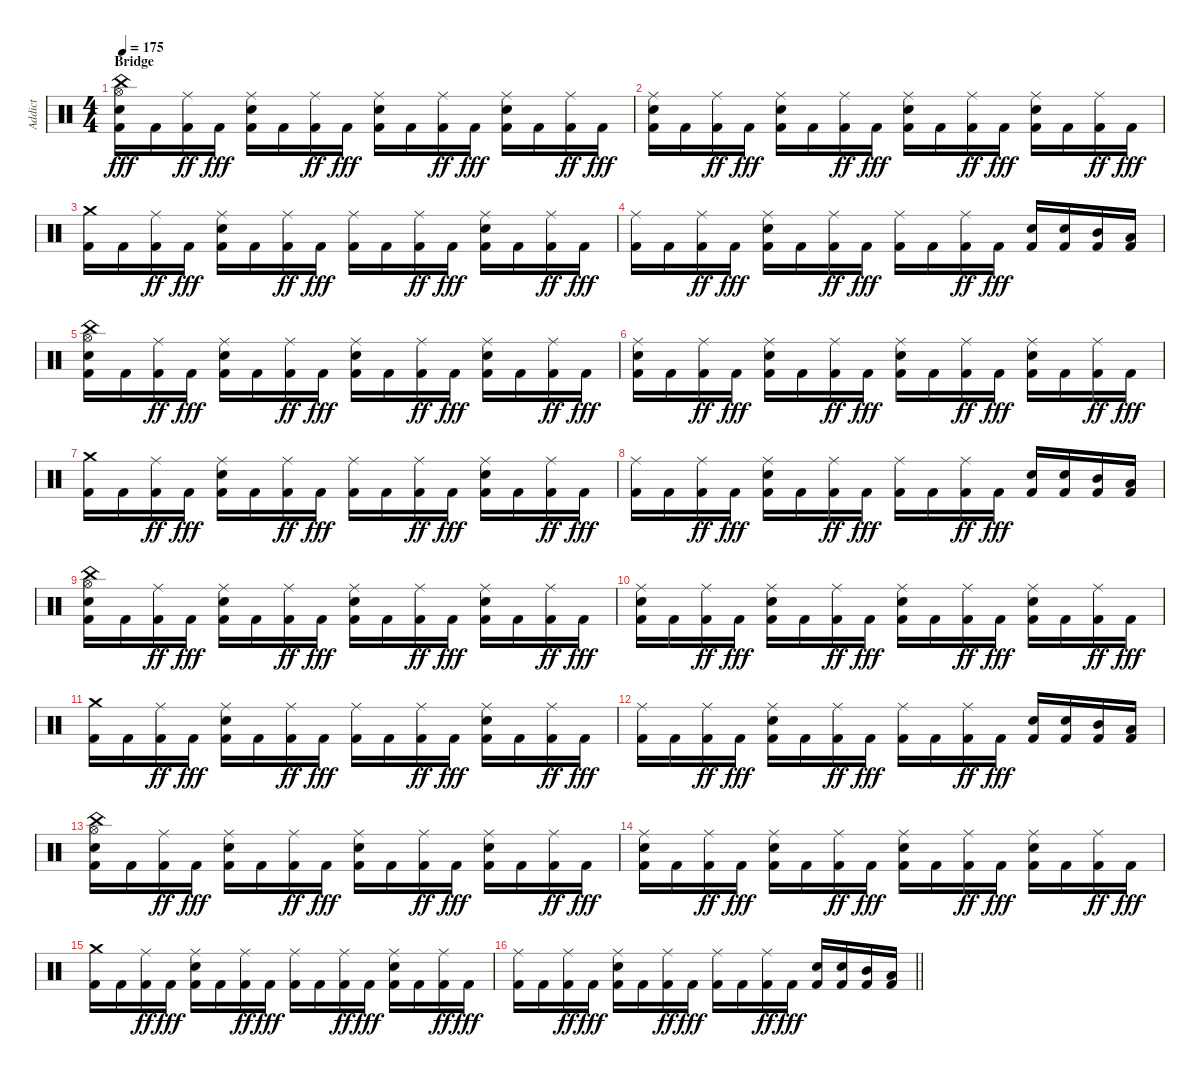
\track ("Addict" "Addict") {instrument percussion}
\staff {score}
\articulation defaults
\ts (4 4)
\section ("" "Bridge")
\tempo 175
\clef neutral
\ks c
("Kick (hit) 2" "Hi-Hat (open)" "Snare (hit) 2" "China (hit)").16{dy fff} "Kick (hit) 2".16 ("Kick (hit) 2" "Ride (middle)").16{dy ff} "Kick (hit) 2".16{dy fff} ("Kick (hit) 2" "Snare (hit) 2" "Ride (middle)").16 "Kick (hit) 2".16 ("Kick (hit) 2" "Ride (middle)").16{dy ff} "Kick (hit) 2".16{dy fff} ("Kick (hit) 2" "Snare (hit) 2" "Ride (middle)").16 "Kick (hit) 2".16 ("Kick (hit) 2" "Ride (middle)").16{dy ff} "Kick (hit) 2".16{dy fff} ("Kick (hit) 2" "Snare (hit) 2" "Ride (middle)").16 "Kick (hit) 2".16 ("Kick (hit) 2" "Ride (middle)").16{dy ff} "Kick (hit) 2".16{dy fff} |
("Kick (hit) 2" "Snare (hit) 2" "Ride (middle)").16 "Kick (hit) 2".16 ("Kick (hit) 2" "Ride (middle)").16{dy ff} "Kick (hit) 2".16{dy fff} ("Kick (hit) 2" "Snare (hit) 2" "Ride (middle)").16 "Kick (hit) 2".16 ("Kick (hit) 2" "Ride (middle)").16{dy ff} "Kick (hit) 2".16{dy fff} ("Kick (hit) 2" "Snare (hit) 2" "Ride (middle)").16 "Kick (hit) 2".16 ("Kick (hit) 2" "Ride (middle)").16{dy ff} "Kick (hit) 2".16{dy fff} ("Kick (hit) 2" "Snare (hit) 2" "Ride (middle)").16 "Kick (hit) 2".16 ("Kick (hit) 2" "Ride (middle)").16{dy ff} "Kick (hit) 2".16{dy fff} |
("Kick (hit) 2" "Crash medium (hit)").16 "Kick (hit) 2".16 ("Kick (hit) 2" "Ride (middle)").16{dy ff} "Kick (hit) 2".16{dy fff} ("Kick (hit) 2" "Snare (hit) 2" "Ride (middle)").16 "Kick (hit) 2".16 ("Kick (hit) 2" "Ride (middle)").16{dy ff} "Kick (hit) 2".16{dy fff} ("Kick (hit) 2" "Ride (middle)").16 "Kick (hit) 2".16 ("Kick (hit) 2" "Ride (middle)").16{dy ff} "Kick (hit) 2".16{dy fff} ("Kick (hit) 2" "Snare (hit) 2" "Ride (middle)").16 "Kick (hit) 2".16 ("Kick (hit) 2" "Ride (middle)").16{dy ff} "Kick (hit) 2".16{dy fff} |
("Kick (hit) 2" "Ride (middle)").16 "Kick (hit) 2".16 ("Kick (hit) 2" "Ride (middle)").16{dy ff} "Kick (hit) 2".16{dy fff} ("Kick (hit) 2" "Snare (hit) 2" "Ride (middle)").16 "Kick (hit) 2".16 ("Kick (hit) 2" "Ride (middle)").16{dy ff} "Kick (hit) 2".16{dy fff} ("Kick (hit) 2" "Ride (middle)").16 "Kick (hit) 2".16 ("Kick (hit) 2" "Ride (middle)").16{dy ff} "Kick (hit) 2".16{dy fff} ("Kick (hit) 2" "Snare (hit) 2").16 ("Kick (hit) 2" "Snare (hit) 2").16 ("Kick (hit) 2" "Mid Tom (hit)").16 ("Kick (hit) 2" "Low Tom (hit)").16 |
("Kick (hit) 2" "Hi-Hat (open)" "Snare (hit) 2" "China (hit)").16 "Kick (hit) 2".16 ("Kick (hit) 2" "Ride (middle)").16{dy ff} "Kick (hit) 2".16{dy fff} ("Kick (hit) 2" "Snare (hit) 2" "Ride (middle)").16 "Kick (hit) 2".16 ("Kick (hit) 2" "Ride (middle)").16{dy ff} "Kick (hit) 2".16{dy fff} ("Kick (hit) 2" "Snare (hit) 2" "Ride (middle)").16 "Kick (hit) 2".16 ("Kick (hit) 2" "Ride (middle)").16{dy ff} "Kick (hit) 2".16{dy fff} ("Kick (hit) 2" "Snare (hit) 2" "Ride (middle)").16 "Kick (hit) 2".16 ("Kick (hit) 2" "Ride (middle)").16{dy ff} "Kick (hit) 2".16{dy fff} |
("Kick (hit) 2" "Snare (hit) 2" "Ride (middle)").16 "Kick (hit) 2".16 ("Kick (hit) 2" "Ride (middle)").16{dy ff} "Kick (hit) 2".16{dy fff} ("Kick (hit) 2" "Snare (hit) 2" "Ride (middle)").16 "Kick (hit) 2".16 ("Kick (hit) 2" "Ride (middle)").16{dy ff} "Kick (hit) 2".16{dy fff} ("Kick (hit) 2" "Snare (hit) 2" "Ride (middle)").16 "Kick (hit) 2".16 ("Kick (hit) 2" "Ride (middle)").16{dy ff} "Kick (hit) 2".16{dy fff} ("Kick (hit) 2" "Snare (hit) 2" "Ride (middle)").16 "Kick (hit) 2".16 ("Kick (hit) 2" "Ride (middle)").16{dy ff} "Kick (hit) 2".16{dy fff} |
("Kick (hit) 2" "Crash medium (hit)").16 "Kick (hit) 2".16 ("Kick (hit) 2" "Ride (middle)").16{dy ff} "Kick (hit) 2".16{dy fff} ("Kick (hit) 2" "Snare (hit) 2" "Ride (middle)").16 "Kick (hit) 2".16 ("Kick (hit) 2" "Ride (middle)").16{dy ff} "Kick (hit) 2".16{dy fff} ("Kick (hit) 2" "Ride (middle)").16 "Kick (hit) 2".16 ("Kick (hit) 2" "Ride (middle)").16{dy ff} "Kick (hit) 2".16{dy fff} ("Kick (hit) 2" "Snare (hit) 2" "Ride (middle)").16 "Kick (hit) 2".16 ("Kick (hit) 2" "Ride (middle)").16{dy ff} "Kick (hit) 2".16{dy fff} |
("Kick (hit) 2" "Ride (middle)").16 "Kick (hit) 2".16 ("Kick (hit) 2" "Ride (middle)").16{dy ff} "Kick (hit) 2".16{dy fff} ("Kick (hit) 2" "Snare (hit) 2" "Ride (middle)").16 "Kick (hit) 2".16 ("Kick (hit) 2" "Ride (middle)").16{dy ff} "Kick (hit) 2".16{dy fff} ("Kick (hit) 2" "Ride (middle)").16 "Kick (hit) 2".16 ("Kick (hit) 2" "Ride (middle)").16{dy ff} "Kick (hit) 2".16{dy fff} ("Kick (hit) 2" "Snare (hit) 2").16 ("Kick (hit) 2" "Snare (hit) 2").16 ("Kick (hit) 2" "Mid Tom (hit)").16 ("Kick (hit) 2" "Low Tom (hit)").16 |
("Kick (hit) 2" "Hi-Hat (open)" "Snare (hit) 2" "China (hit)").16 "Kick (hit) 2".16 ("Kick (hit) 2" "Ride (middle)").16{dy ff} "Kick (hit) 2".16{dy fff} ("Kick (hit) 2" "Snare (hit) 2" "Ride (middle)").16 "Kick (hit) 2".16 ("Kick (hit) 2" "Ride (middle)").16{dy ff} "Kick (hit) 2".16{dy fff} ("Kick (hit) 2" "Snare (hit) 2" "Ride (middle)").16 "Kick (hit) 2".16 ("Kick (hit) 2" "Ride (middle)").16{dy ff} "Kick (hit) 2".16{dy fff} ("Kick (hit) 2" "Snare (hit) 2" "Ride (middle)").16 "Kick (hit) 2".16 ("Kick (hit) 2" "Ride (middle)").16{dy ff} "Kick (hit) 2".16{dy fff} |
("Kick (hit) 2" "Snare (hit) 2" "Ride (middle)").16 "Kick (hit) 2".16 ("Kick (hit) 2" "Ride (middle)").16{dy ff} "Kick (hit) 2".16{dy fff} ("Kick (hit) 2" "Snare (hit) 2" "Ride (middle)").16 "Kick (hit) 2".16 ("Kick (hit) 2" "Ride (middle)").16{dy ff} "Kick (hit) 2".16{dy fff} ("Kick (hit) 2" "Snare (hit) 2" "Ride (middle)").16 "Kick (hit) 2".16 ("Kick (hit) 2" "Ride (middle)").16{dy ff} "Kick (hit) 2".16{dy fff} ("Kick (hit) 2" "Snare (hit) 2" "Ride (middle)").16 "Kick (hit) 2".16 ("Kick (hit) 2" "Ride (middle)").16{dy ff} "Kick (hit) 2".16{dy fff} |
("Kick (hit) 2" "Crash medium (hit)").16 "Kick (hit) 2".16 ("Kick (hit) 2" "Ride (middle)").16{dy ff} "Kick (hit) 2".16{dy fff} ("Kick (hit) 2" "Snare (hit) 2" "Ride (middle)").16 "Kick (hit) 2".16 ("Kick (hit) 2" "Ride (middle)").16{dy ff} "Kick (hit) 2".16{dy fff} ("Kick (hit) 2" "Ride (middle)").16 "Kick (hit) 2".16 ("Kick (hit) 2" "Ride (middle)").16{dy ff} "Kick (hit) 2".16{dy fff} ("Kick (hit) 2" "Snare (hit) 2" "Ride (middle)").16 "Kick (hit) 2".16 ("Kick (hit) 2" "Ride (middle)").16{dy ff} "Kick (hit) 2".16{dy fff} |
("Kick (hit) 2" "Ride (middle)").16 "Kick (hit) 2".16 ("Kick (hit) 2" "Ride (middle)").16{dy ff} "Kick (hit) 2".16{dy fff} ("Kick (hit) 2" "Snare (hit) 2" "Ride (middle)").16 "Kick (hit) 2".16 ("Kick (hit) 2" "Ride (middle)").16{dy ff} "Kick (hit) 2".16{dy fff} ("Kick (hit) 2" "Ride (middle)").16 "Kick (hit) 2".16 ("Kick (hit) 2" "Ride (middle)").16{dy ff} "Kick (hit) 2".16{dy fff} ("Kick (hit) 2" "Snare (hit) 2").16 ("Kick (hit) 2" "Snare (hit) 2").16 ("Kick (hit) 2" "Mid Tom (hit)").16 ("Kick (hit) 2" "Low Tom (hit)").16 |
("Kick (hit) 2" "Hi-Hat (open)" "Snare (hit) 2" "China (hit)").16 "Kick (hit) 2".16 ("Kick (hit) 2" "Ride (middle)").16{dy ff} "Kick (hit) 2".16{dy fff} ("Kick (hit) 2" "Snare (hit) 2" "Ride (middle)").16 "Kick (hit) 2".16 ("Kick (hit) 2" "Ride (middle)").16{dy ff} "Kick (hit) 2".16{dy fff} ("Kick (hit) 2" "Snare (hit) 2" "Ride (middle)").16 "Kick (hit) 2".16 ("Kick (hit) 2" "Ride (middle)").16{dy ff} "Kick (hit) 2".16{dy fff} ("Kick (hit) 2" "Snare (hit) 2" "Ride (middle)").16 "Kick (hit) 2".16 ("Kick (hit) 2" "Ride (middle)").16{dy ff} "Kick (hit) 2".16{dy fff} |
("Kick (hit) 2" "Snare (hit) 2" "Ride (middle)").16 "Kick (hit) 2".16 ("Kick (hit) 2" "Ride (middle)").16{dy ff} "Kick (hit) 2".16{dy fff} ("Kick (hit) 2" "Snare (hit) 2" "Ride (middle)").16 "Kick (hit) 2".16 ("Kick (hit) 2" "Ride (middle)").16{dy ff} "Kick (hit) 2".16{dy fff} ("Kick (hit) 2" "Snare (hit) 2" "Ride (middle)").16 "Kick (hit) 2".16 ("Kick (hit) 2" "Ride (middle)").16{dy ff} "Kick (hit) 2".16{dy fff} ("Kick (hit) 2" "Snare (hit) 2" "Ride (middle)").16 "Kick (hit) 2".16 ("Kick (hit) 2" "Ride (middle)").16{dy ff} "Kick (hit) 2".16{dy fff} |
("Kick (hit) 2" "Crash medium (hit)").16 "Kick (hit) 2".16 ("Kick (hit) 2" "Ride (middle)").16{dy ff} "Kick (hit) 2".16{dy fff} ("Kick (hit) 2" "Snare (hit) 2" "Ride (middle)").16 "Kick (hit) 2".16 ("Kick (hit) 2" "Ride (middle)").16{dy ff} "Kick (hit) 2".16{dy fff} ("Kick (hit) 2" "Ride (middle)").16 "Kick (hit) 2".16 ("Kick (hit) 2" "Ride (middle)").16{dy ff} "Kick (hit) 2".16{dy fff} ("Kick (hit) 2" "Snare (hit) 2" "Ride (middle)").16 "Kick (hit) 2".16 ("Kick (hit) 2" "Ride (middle)").16{dy ff} "Kick (hit) 2".16{dy fff} |
\barLineRight lightlight
("Kick (hit) 2" "Ride (middle)").16 "Kick (hit) 2".16 ("Kick (hit) 2" "Ride (middle)").16{dy ff} "Kick (hit) 2".16{dy fff} ("Kick (hit) 2" "Snare (hit) 2" "Ride (middle)").16 "Kick (hit) 2".16 ("Kick (hit) 2" "Ride (middle)").16{dy ff} "Kick (hit) 2".16{dy fff} ("Kick (hit) 2" "Ride (middle)").16 "Kick (hit) 2".16 ("Kick (hit) 2" "Ride (middle)").16{dy ff} "Kick (hit) 2".16{dy fff} ("Kick (hit) 2" "Snare (hit) 2").16 ("Kick (hit) 2" "Snare (hit) 2").16 ("Kick (hit) 2" "Mid Tom (hit)").16 ("Kick (hit) 2" "Low Tom (hit)").16
